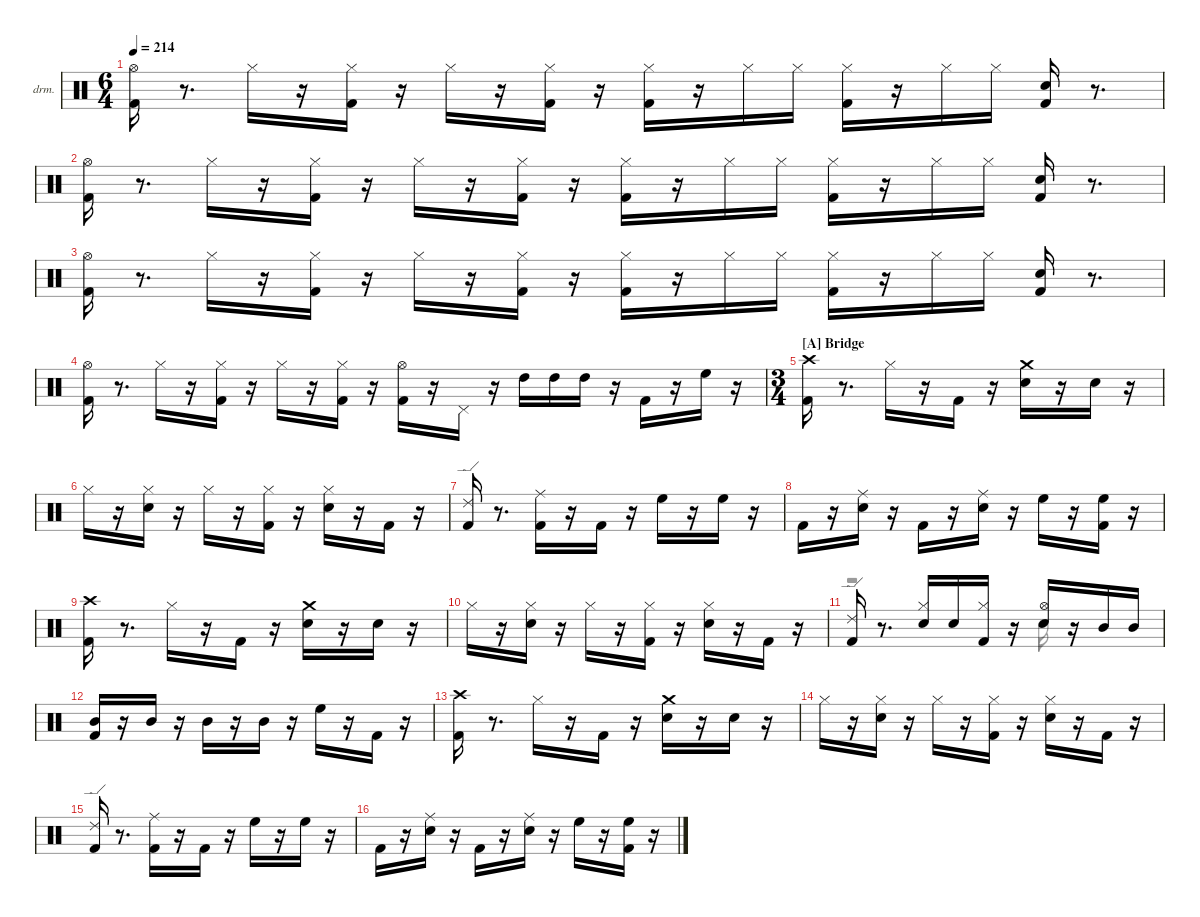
\hideDynamics
\bracketExtendMode nobrackets
\firstSystemTrackNameOrientation horizontal
\track ("EZdrummer 3" "drm.") {instrument percussion}
\staff {score}
\articulation defaults
\voice
\ts (6 4)
\tempo 214
\clef neutral
\ks aminor
("Kick (hit) 2" "Hi-Hat (open)"{acc #}).16{dy ff} r.8{d} "Hi-Hat (closed)"{acc #}.16{dy f} r.16 ("Kick (hit) 2" "Hi-Hat (closed)"{acc #}).16{dy ff} r.16 "Hi-Hat (closed)"{acc #}.16 r.16 ("Kick (hit) 2" "Hi-Hat (closed)"{acc #}).16 r.16 ("Kick (hit) 2" "Hi-Hat (closed)"{acc #}).16 r.16 "Hi-Hat (closed)"{acc #}.16{dy f} "Hi-Hat (closed)"{acc #}.16{dy mp} ("Kick (hit) 2" "Hi-Hat (closed)"{acc #}).16{dy ff} r.16 "Hi-Hat (closed)"{acc #}.16{dy f} "Hi-Hat (closed)"{acc #}.16{dy mf} ("Kick (hit) 2" "Snare (hit) 2").16{dy ff} r.8{d} |
("Kick (hit) 2" "Hi-Hat (open)"{acc #}).16 r.8{d} "Hi-Hat (closed)"{acc #}.16{dy f} r.16 ("Kick (hit) 2" "Hi-Hat (closed)"{acc #}).16{dy ff} r.16 "Hi-Hat (closed)"{acc #}.16 r.16 ("Kick (hit) 2" "Hi-Hat (closed)"{acc #}).16 r.16 ("Kick (hit) 2" "Hi-Hat (closed)"{acc #}).16 r.16 "Hi-Hat (closed)"{acc #}.16{dy f} "Hi-Hat (closed)"{acc #}.16{dy mp} ("Kick (hit) 2" "Hi-Hat (closed)"{acc #}).16{dy ff} r.16 "Hi-Hat (closed)"{acc #}.16{dy f} "Hi-Hat (closed)"{acc #}.16{dy mf} ("Kick (hit) 2" "Snare (hit) 2").16{dy ff} r.8{d} |
("Kick (hit) 2" "Hi-Hat (open)"{acc #}).16 r.8{d} "Hi-Hat (closed)"{acc #}.16{dy f} r.16 ("Kick (hit) 2" "Hi-Hat (closed)"{acc #}).16{dy ff} r.16 "Hi-Hat (closed)"{acc #}.16 r.16 ("Kick (hit) 2" "Hi-Hat (closed)"{acc #}).16 r.16 ("Kick (hit) 2" "Hi-Hat (closed)"{acc #}).16 r.16 "Hi-Hat (closed)"{acc #}.16{dy f} "Hi-Hat (closed)"{acc #}.16{dy mp} ("Kick (hit) 2" "Hi-Hat (closed)"{acc #}).16{dy ff} r.16 "Hi-Hat (closed)"{acc #}.16{dy f} "Hi-Hat (closed)"{acc #}.16{dy mf} ("Kick (hit) 2" "Snare (hit) 2").16{dy ff} r.8{d} |
("Kick (hit) 2" "Hi-Hat (open)"{acc #}).16 r.8{d} "Hi-Hat (closed)"{acc #}.16{dy f} r.16 ("Kick (hit) 2" "Hi-Hat (closed)"{acc #}).16{dy ff} r.16 "Hi-Hat (closed)"{acc #}.16 r.16 ("Kick (hit) 2" "Hi-Hat (closed)"{acc #}).16 r.16 ("Kick (hit) 2" "Hi-Hat (open)"{acc #}).16 r.16 "Pedal Hi-Hat (hit)"{acc #}.16 r.16 "High Tom (hit)".16{dy f} "High Tom (hit)".16{dy mp} "High Tom (hit)".16{dy fff} r.16 "Kick (hit) 2".16{dy ff} r.16 "High Floor Tom (hit)".16{dy fff} r.16 |
\ts (3 4)
\section ("A" "Bridge")
("Kick (hit) 2" "Crash high (hit)"{acc #}).16 r.8{d} "Hi-Hat (closed)"{acc #}.16{dy f} r.16 "Kick (hit) 2".16 r.16 ("Snare (hit) 2" "Crash medium (hit)").16 r.16 "Snare (hit) 2".16{dy pp} r.16 |
"Hi-Hat (closed)"{acc #}.16{dy ff} r.16 ("Snare (hit) 2" "Hi-Hat (closed)"{acc #}).16{dy f} r.16 "Hi-Hat (closed)"{acc #}.16 r.16 ("Kick (hit) 2" "Hi-Hat (closed)"{acc #}).16 r.16 ("Snare (hit) 2" "Hi-Hat (closed)"{acc #}).16 r.16 "Kick (hit) 2".16{dy pp} r.16 |
("Kick (hit) 2" "Ride (edge) 2").16{dy fff} r.8{d} ("Kick (hit) 2" "Ride (middle)"{acc #}).16{dy mf} r.16 "Kick (hit) 2".16{dy fff} r.16 "High Floor Tom (hit)".16 r.16 "High Floor Tom (hit)".16{dy ff} r.16 |
"Kick (hit) 2".16 r.16 ("Snare (hit) 2" "Ride (middle)"{acc #}).16{dy f} r.16 "Kick (hit) 2".16{dy ff} r.16 ("Snare (hit) 2" "Ride (middle)"{acc #}).16 r.16 "High Floor Tom (hit)".16{dy f} r.16 ("Kick (hit) 2" "High Floor Tom (hit)").16{dy mf} r.16 |
("Kick (hit) 2" "Crash high (hit)"{acc #}).16{dy ff} r.8{d} "Hi-Hat (closed)"{acc #}.16{dy f} r.16 "Kick (hit) 2".16 r.16 ("Snare (hit) 2" "Crash medium (hit)").16 r.16 "Snare (hit) 2".16{dy pp} r.16 |
"Hi-Hat (closed)"{acc #}.16{dy ff} r.16 ("Snare (hit) 2" "Hi-Hat (closed)"{acc #}).16{dy f} r.16 "Hi-Hat (closed)"{acc #}.16 r.16 ("Kick (hit) 2" "Hi-Hat (closed)"{acc #}).16 r.16 ("Snare (hit) 2" "Hi-Hat (closed)"{acc #}).16 r.16 "Kick (hit) 2".16{dy pp} r.16 |
("Kick (hit) 2" "Ride (edge) 2").16{dy ff} r.8{d} ("Snare (hit) 2" "Hi-Hat (closed)"{acc #}).16{dy p} "Snare (hit) 2".16 ("Kick (hit) 2" "Hi-Hat (closed)"{acc #}).16{dy mf} r.16 ("Snare (hit) 2" "Hi-Hat (open)"{acc #}).16 r.16 "Mid Tom (hit)".16{dy mp} "Mid Tom (hit)".16{dy pp} |
("Kick (hit) 2" "Mid Tom (hit)").16{dy mf} r.16 "Mid Tom (hit)".16 r.16 "Mid Tom (hit)".16{dy ff} r.16 "Mid Tom (hit)".16{dy f} r.16 "High Floor Tom (hit)".16{dy ff} r.16 "Kick (hit) 2".16{dy mf} r.16 |
("Kick (hit) 2" "Crash high (hit)"{acc #}).16{dy fff} r.8{d} "Hi-Hat (closed)"{acc #}.16{dy f} r.16 "Kick (hit) 2".16 r.16 ("Snare (hit) 2" "Crash medium (hit)").16 r.16 "Snare (hit) 2".16{dy pp} r.16 |
"Hi-Hat (closed)"{acc #}.16{dy ff} r.16 ("Snare (hit) 2" "Hi-Hat (closed)"{acc #}).16{dy f} r.16 "Hi-Hat (closed)"{acc #}.16 r.16 ("Kick (hit) 2" "Hi-Hat (closed)"{acc #}).16 r.16 ("Snare (hit) 2" "Hi-Hat (closed)"{acc #}).16 r.16 "Kick (hit) 2".16{dy pp} r.16 |
("Kick (hit) 2" "Ride (edge) 2").16{dy fff} r.8{d} ("Kick (hit) 2" "Ride (middle)"{acc #}).16{dy mf} r.16 "Kick (hit) 2".16{dy fff} r.16 "High Floor Tom (hit)".16 r.16 "High Floor Tom (hit)".16{dy ff} r.16 |
"Kick (hit) 2".16 r.16 ("Snare (hit) 2" "Ride (middle)"{acc #}).16{dy f} r.16 "Kick (hit) 2".16{dy ff} r.16 ("Snare (hit) 2" "Ride (middle)"{acc #}).16 r.16 "High Floor Tom (hit)".16{dy f} r.16 ("Kick (hit) 2" "High Floor Tom (hit)").16{dy mf} r.16
\voice
\clef neutral
\ottava regular
\simile none
\ks aminor
|
|
|
|
|
|
|
|
|
|
r.2 "Snare (hit) 2".16 |
|
|
|
|
